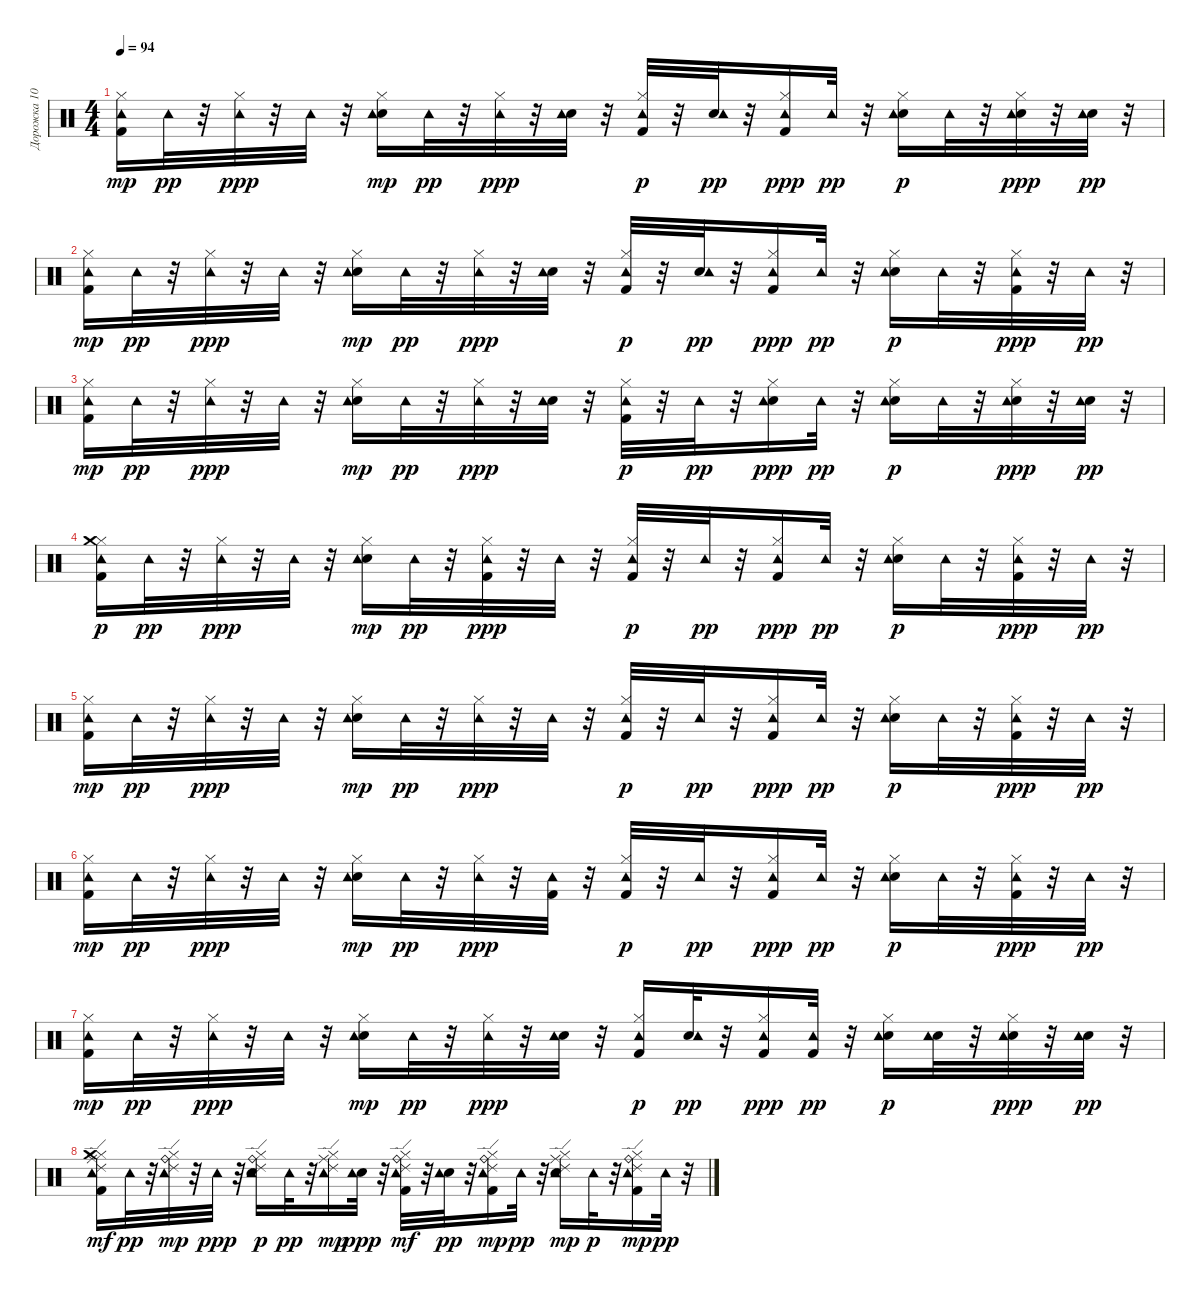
\track ("Дорожка 10" "Дорожка 10") {instrument percussion}
\staff {score}
\articulation defaults
\ts (4 4)
\tempo 94
\clef neutral
\ks c
("Kick (hit) 2" "Hi-Hat (closed)" "Tambourine (hit)").16{dy mp} "Tambourine (hit)".32{dy pp} r.32 ("Hi-Hat (closed)" "Tambourine (hit)").32{dy ppp} r.32 "Tambourine (hit)".32 r.32 ("Electric Snare (hit)" "Hi-Hat (closed)" "Tambourine (hit)").16{dy mp} "Tambourine (hit)".32{dy pp} r.32 ("Hi-Hat (closed)" "Tambourine (hit)").32{dy ppp} r.32 ("Electric Snare (hit)" "Tambourine (hit)").32 r.32 ("Kick (hit) 2" "Hi-Hat (closed)" "Tambourine (hit)").32{dy p} r.32 ("Electric Snare (hit)" "Tambourine (hit)").32{dy pp} r.32 ("Kick (hit) 2" "Hi-Hat (closed)" "Tambourine (hit)").16{dy ppp} "Tambourine (hit)".32{dy pp} r.32 ("Electric Snare (hit)" "Hi-Hat (closed)" "Tambourine (hit)").16{dy p} "Tambourine (hit)".32 r.32 ("Electric Snare (hit)" "Hi-Hat (closed)" "Tambourine (hit)").32{dy ppp} r.32 ("Electric Snare (hit)" "Tambourine (hit)").32{dy pp} r.32 |
("Kick (hit) 2" "Hi-Hat (closed)" "Tambourine (hit)").16{dy mp} "Tambourine (hit)".32{dy pp} r.32 ("Hi-Hat (closed)" "Tambourine (hit)").32{dy ppp} r.32 "Tambourine (hit)".32 r.32 ("Electric Snare (hit)" "Hi-Hat (closed)" "Tambourine (hit)").16{dy mp} "Tambourine (hit)".32{dy pp} r.32 ("Hi-Hat (closed)" "Tambourine (hit)").32{dy ppp} r.32 ("Electric Snare (hit)" "Tambourine (hit)").32 r.32 ("Kick (hit) 2" "Hi-Hat (closed)" "Tambourine (hit)").32{dy p} r.32 ("Electric Snare (hit)" "Tambourine (hit)").32{dy pp} r.32 ("Kick (hit) 2" "Hi-Hat (closed)" "Tambourine (hit)").16{dy ppp} "Tambourine (hit)".32{dy pp} r.32 ("Electric Snare (hit)" "Hi-Hat (closed)" "Tambourine (hit)").16{dy p} "Tambourine (hit)".32 r.32 ("Kick (hit) 2" "Hi-Hat (closed)" "Tambourine (hit)").32{dy ppp} r.32 "Tambourine (hit)".32{dy pp} r.32 |
("Kick (hit) 2" "Hi-Hat (closed)" "Tambourine (hit)").16{dy mp} "Tambourine (hit)".32{dy pp} r.32 ("Hi-Hat (closed)" "Tambourine (hit)").32{dy ppp} r.32 "Tambourine (hit)".32 r.32 ("Electric Snare (hit)" "Hi-Hat (closed)" "Tambourine (hit)").16{dy mp} "Tambourine (hit)".32{dy pp} r.32 ("Hi-Hat (closed)" "Tambourine (hit)").32{dy ppp} r.32 ("Electric Snare (hit)" "Tambourine (hit)").32 r.32 ("Kick (hit) 2" "Hi-Hat (closed)" "Tambourine (hit)").32{dy p} r.32 "Tambourine (hit)".32{dy pp} r.32 ("Electric Snare (hit)" "Hi-Hat (closed)" "Tambourine (hit)").16{dy ppp} "Tambourine (hit)".32{dy pp} r.32 ("Electric Snare (hit)" "Hi-Hat (closed)" "Tambourine (hit)").16{dy p} "Tambourine (hit)".32 r.32 ("Electric Snare (hit)" "Hi-Hat (closed)" "Tambourine (hit)").32{dy ppp} r.32 ("Electric Snare (hit)" "Tambourine (hit)").32{dy pp} r.32 |
("Kick (hit) 2" "Hi-Hat (closed)" "Tambourine (hit)" "Crash medium (hit)").16{dy p} "Tambourine (hit)".32{dy pp} r.32 ("Hi-Hat (closed)" "Tambourine (hit)").32{dy ppp} r.32 "Tambourine (hit)".32 r.32 ("Electric Snare (hit)" "Hi-Hat (closed)" "Tambourine (hit)").16{dy mp} "Tambourine (hit)".32{dy pp} r.32 ("Kick (hit) 2" "Hi-Hat (closed)" "Tambourine (hit)").32{dy ppp} r.32 "Tambourine (hit)".32 r.32 ("Kick (hit) 2" "Hi-Hat (closed)" "Tambourine (hit)").32{dy p} r.32 "Tambourine (hit)".32{dy pp} r.32 ("Kick (hit) 2" "Hi-Hat (closed)" "Tambourine (hit)").16{dy ppp} "Tambourine (hit)".32{dy pp} r.32 ("Electric Snare (hit)" "Hi-Hat (closed)" "Tambourine (hit)").16{dy p} "Tambourine (hit)".32 r.32 ("Kick (hit) 2" "Hi-Hat (closed)" "Tambourine (hit)").32{dy ppp} r.32 "Tambourine (hit)".32{dy pp} r.32 |
("Kick (hit) 2" "Hi-Hat (closed)" "Tambourine (hit)").16{dy mp} "Tambourine (hit)".32{dy pp} r.32 ("Hi-Hat (closed)" "Tambourine (hit)").32{dy ppp} r.32 "Tambourine (hit)".32 r.32 ("Electric Snare (hit)" "Hi-Hat (closed)" "Tambourine (hit)").16{dy mp} "Tambourine (hit)".32{dy pp} r.32 ("Hi-Hat (closed)" "Tambourine (hit)").32{dy ppp} r.32 "Tambourine (hit)".32 r.32 ("Kick (hit) 2" "Hi-Hat (closed)" "Tambourine (hit)").32{dy p} r.32 "Tambourine (hit)".32{dy pp} r.32 ("Kick (hit) 2" "Hi-Hat (closed)" "Tambourine (hit)").16{dy ppp} "Tambourine (hit)".32{dy pp} r.32 ("Electric Snare (hit)" "Hi-Hat (closed)" "Tambourine (hit)").16{dy p} "Tambourine (hit)".32 r.32 ("Kick (hit) 2" "Hi-Hat (closed)" "Tambourine (hit)").32{dy ppp} r.32 "Tambourine (hit)".32{dy pp} r.32 |
("Kick (hit) 2" "Hi-Hat (closed)" "Tambourine (hit)").16{dy mp} "Tambourine (hit)".32{dy pp} r.32 ("Hi-Hat (closed)" "Tambourine (hit)").32{dy ppp} r.32 "Tambourine (hit)".32 r.32 ("Electric Snare (hit)" "Hi-Hat (closed)" "Tambourine (hit)").16{dy mp} "Tambourine (hit)".32{dy pp} r.32 ("Hi-Hat (closed)" "Tambourine (hit)").32{dy ppp} r.32 ("Kick (hit) 2" "Tambourine (hit)").32 r.32 ("Kick (hit) 2" "Hi-Hat (closed)" "Tambourine (hit)").32{dy p} r.32 "Tambourine (hit)".32{dy pp} r.32 ("Kick (hit) 2" "Hi-Hat (closed)" "Tambourine (hit)").16{dy ppp} "Tambourine (hit)".32{dy pp} r.32 ("Electric Snare (hit)" "Hi-Hat (closed)" "Tambourine (hit)").16{dy p} "Tambourine (hit)".32 r.32 ("Kick (hit) 2" "Hi-Hat (closed)" "Tambourine (hit)").32{dy ppp} r.32 "Tambourine (hit)".32{dy pp} r.32 |
("Kick (hit) 2" "Hi-Hat (closed)" "Tambourine (hit)").16{dy mp} "Tambourine (hit)".32{dy pp} r.32 ("Hi-Hat (closed)" "Tambourine (hit)").32{dy ppp} r.32 "Tambourine (hit)".32 r.32 ("Electric Snare (hit)" "Hi-Hat (closed)" "Tambourine (hit)").16{dy mp} "Tambourine (hit)".32{dy pp} r.32 ("Hi-Hat (closed)" "Tambourine (hit)").32{dy ppp} r.32 ("Electric Snare (hit)" "Tambourine (hit)").32 r.32 ("Kick (hit) 2" "Hi-Hat (closed)" "Tambourine (hit)").16{dy p} ("Electric Snare (hit)" "Tambourine (hit)").32{dy pp} r.32 ("Kick (hit) 2" "Hi-Hat (closed)" "Tambourine (hit)").16{dy ppp} ("Kick (hit) 2" "Tambourine (hit)").32{dy pp} r.32 ("Electric Snare (hit)" "Hi-Hat (closed)" "Tambourine (hit)").16{dy p} ("Electric Snare (hit)" "Tambourine (hit)").32 r.32 ("Electric Snare (hit)" "Hi-Hat (closed)" "Tambourine (hit)").32{dy ppp} r.32 ("Electric Snare (hit)" "Tambourine (hit)").32{dy pp} r.32 |
("Kick (hit) 2" "Hi-Hat (closed)" "Ride (middle)" "Tambourine (hit)" "Crash medium (hit)" "Ride (edge) 2").16{dy mf} "Tambourine (hit)".32{dy pp} r.32 ("Hi-Hat (closed)" "Ride (bell)" "Tambourine (hit)" "Ride (edge) 2").32{dy mp} r.32 "Tambourine (hit)".32{dy ppp} r.32 ("Electric Snare (hit)" "Hi-Hat (closed)" "Ride (bell)" "Tambourine (hit)" "Ride (edge) 2").16{dy p} "Tambourine (hit)".32{dy pp} r.32 ("Hi-Hat (closed)" "Ride (middle)" "Tambourine (hit)" "Ride (edge) 2").16{dy mp} ("Electric Snare (hit)" "Tambourine (hit)").32{dy ppp} r.32 ("Kick (hit) 2" "Hi-Hat (closed)" "Ride (bell)" "Tambourine (hit)" "Ride (edge) 2").32{dy mf} r.32 ("Electric Snare (hit)" "Tambourine (hit)").32{dy pp} r.32 ("Kick (hit) 2" "Hi-Hat (closed)" "Ride (bell)" "Tambourine (hit)" "Ride (edge) 2").16{dy mp} "Tambourine (hit)".32{dy pp} r.32 ("Electric Snare (hit)" "Hi-Hat (closed)" "Ride (middle)" "Tambourine (hit)" "Ride (edge) 2").16{dy mp} "Tambourine (hit)".32{dy p} r.32 ("Kick (hit) 2" "Hi-Hat (closed)" "Ride (bell)" "Tambourine (hit)" "Ride (edge) 2").16{dy mp} "Tambourine (hit)".32{dy pp} r.32
